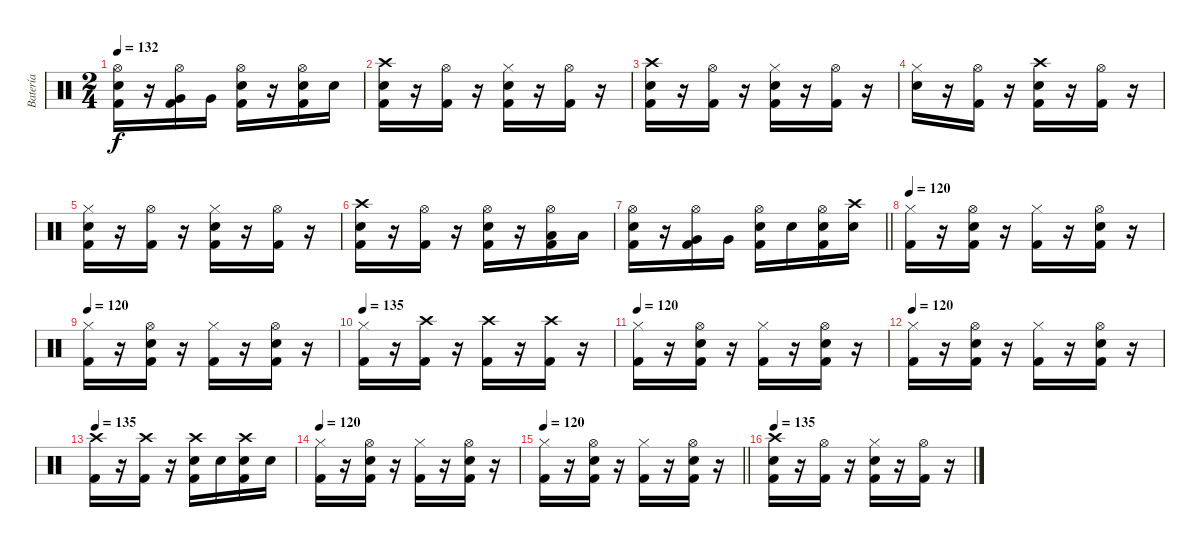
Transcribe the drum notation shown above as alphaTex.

\track ("Batería   (Jony)" "Batería   ") {instrument percussion}
\staff {score}
\articulation defaults
\ts (2 4)
\tempo 132
\clef neutral
\ks c
("Hi-Hat (open)" "Electric Snare (hit)" "Kick (hit) 2").16{dy f} r.16 ("Hi-Hat (open)" "Very Low Tom (hit)" "Kick (hit) 2").16 "Very Low Tom (hit)".16 ("Hi-Hat (open)" "Electric Snare (hit)" "Kick (hit) 2").16 r.16 ("Hi-Hat (open)" "Electric Snare (hit)" "Kick (hit) 2").16 "Electric Snare (hit)".16 |
("Crash high (hit)" "Electric Snare (hit)" "Kick (hit) 2").16 r.16 ("Hi-Hat (open)" "Kick (hit) 2").16 r.16 ("Hi-Hat (closed)" "Electric Snare (hit)" "Kick (hit) 2").16 r.16 ("Hi-Hat (open)" "Kick (hit) 2").16 r.16 |
("Crash high (hit)" "Electric Snare (hit)" "Kick (hit) 2").16 r.16 ("Hi-Hat (open)" "Kick (hit) 2").16 r.16 ("Hi-Hat (closed)" "Electric Snare (hit)" "Kick (hit) 2").16 r.16 ("Hi-Hat (open)" "Kick (hit) 2").16 r.16 |
("Hi-Hat (closed)" "Electric Snare (hit)").16 r.16 ("Hi-Hat (open)" "Kick (hit) 2").16 r.16 ("Crash high (hit)" "Electric Snare (hit)" "Kick (hit) 2").16 r.16 ("Hi-Hat (open)" "Kick (hit) 2").16 r.16 |
("Hi-Hat (closed)" "Electric Snare (hit)" "Kick (hit) 2").16 r.16 ("Hi-Hat (open)" "Kick (hit) 2").16 r.16 ("Hi-Hat (closed)" "Electric Snare (hit)" "Kick (hit) 2").16 r.16 ("Hi-Hat (open)" "Kick (hit) 2").16 r.16 |
("Crash high (hit)" "Electric Snare (hit)" "Kick (hit) 2").16 r.16 ("Hi-Hat (open)" "Kick (hit) 2").16 r.16 ("Hi-Hat (open)" "Electric Snare (hit)" "Kick (hit) 2").16 r.16 ("Hi-Hat (open)" "Low Tom (hit)" "Kick (hit) 2").16 "Low Tom (hit)".16 |
\barLineRight lightlight
("Hi-Hat (open)" "Electric Snare (hit)" "Kick (hit) 2").16 r.16 ("Hi-Hat (open)" "Very Low Tom (hit)" "Kick (hit) 2").16 "Very Low Tom (hit)".16 ("Hi-Hat (open)" "Electric Snare (hit)" "Kick (hit) 2").16 "Electric Snare (hit)".16 ("Hi-Hat (open)" "Electric Snare (hit)" "Kick (hit) 2").16 ("Crash high (hit)" "Electric Snare (hit)").16 |
\tempo 120
("Hi-Hat (closed)" "Kick (hit) 2").16 r.16 ("Hi-Hat (open)" "Electric Snare (hit)" "Kick (hit) 2").16 r.16 ("Hi-Hat (closed)" "Kick (hit) 2").16 r.16 ("Hi-Hat (open)" "Electric Snare (hit)" "Kick (hit) 2").16 r.16 |
\tempo 120
("Hi-Hat (closed)" "Kick (hit) 2").16 r.16 ("Hi-Hat (open)" "Electric Snare (hit)" "Kick (hit) 2").16 r.16 ("Hi-Hat (closed)" "Kick (hit) 2").16 r.16 ("Hi-Hat (open)" "Electric Snare (hit)" "Kick (hit) 2").16 r.16 |
\tempo 135
("Hi-Hat (closed)" "Kick (hit) 2").16 r.16 ("Crash high (hit)" "Kick (hit) 2").16 r.16 ("Crash high (hit)" "Kick (hit) 2").16 r.16 ("Crash high (hit)" "Kick (hit) 2").16 r.16 |
\tempo 120
("Hi-Hat (closed)" "Kick (hit) 2").16 r.16 ("Hi-Hat (open)" "Electric Snare (hit)" "Kick (hit) 2").16 r.16 ("Hi-Hat (closed)" "Kick (hit) 2").16 r.16 ("Hi-Hat (open)" "Electric Snare (hit)" "Kick (hit) 2").16 r.16 |
\tempo 120
("Hi-Hat (closed)" "Kick (hit) 2").16 r.16 ("Hi-Hat (open)" "Electric Snare (hit)" "Kick (hit) 2").16 r.16 ("Hi-Hat (closed)" "Kick (hit) 2").16 r.16 ("Hi-Hat (open)" "Electric Snare (hit)" "Kick (hit) 2").16 r.16 |
\tempo 135
("Crash high (hit)" "Kick (hit) 2").16 r.16 ("Crash high (hit)" "Kick (hit) 2").16 r.16 ("Crash high (hit)" "Electric Snare (hit)" "Kick (hit) 2").16 "Electric Snare (hit)".16 ("Crash high (hit)" "Electric Snare (hit)" "Kick (hit) 2").16 "Electric Snare (hit)".16 |
\tempo 120
("Hi-Hat (closed)" "Kick (hit) 2").16 r.16 ("Hi-Hat (open)" "Electric Snare (hit)" "Kick (hit) 2").16 r.16 ("Hi-Hat (closed)" "Kick (hit) 2").16 r.16 ("Hi-Hat (open)" "Electric Snare (hit)" "Kick (hit) 2").16 r.16 |
\tempo 120
\barLineRight lightlight
("Hi-Hat (closed)" "Kick (hit) 2").16 r.16 ("Hi-Hat (open)" "Electric Snare (hit)" "Kick (hit) 2").16 r.16 ("Hi-Hat (closed)" "Kick (hit) 2").16 r.16 ("Hi-Hat (open)" "Electric Snare (hit)" "Kick (hit) 2").16 r.16 |
\tempo 135
("Crash high (hit)" "Electric Snare (hit)" "Kick (hit) 2").16 r.16 ("Hi-Hat (open)" "Kick (hit) 2").16 r.16 ("Hi-Hat (closed)" "Electric Snare (hit)" "Kick (hit) 2").16 r.16 ("Hi-Hat (open)" "Kick (hit) 2").16 r.16
